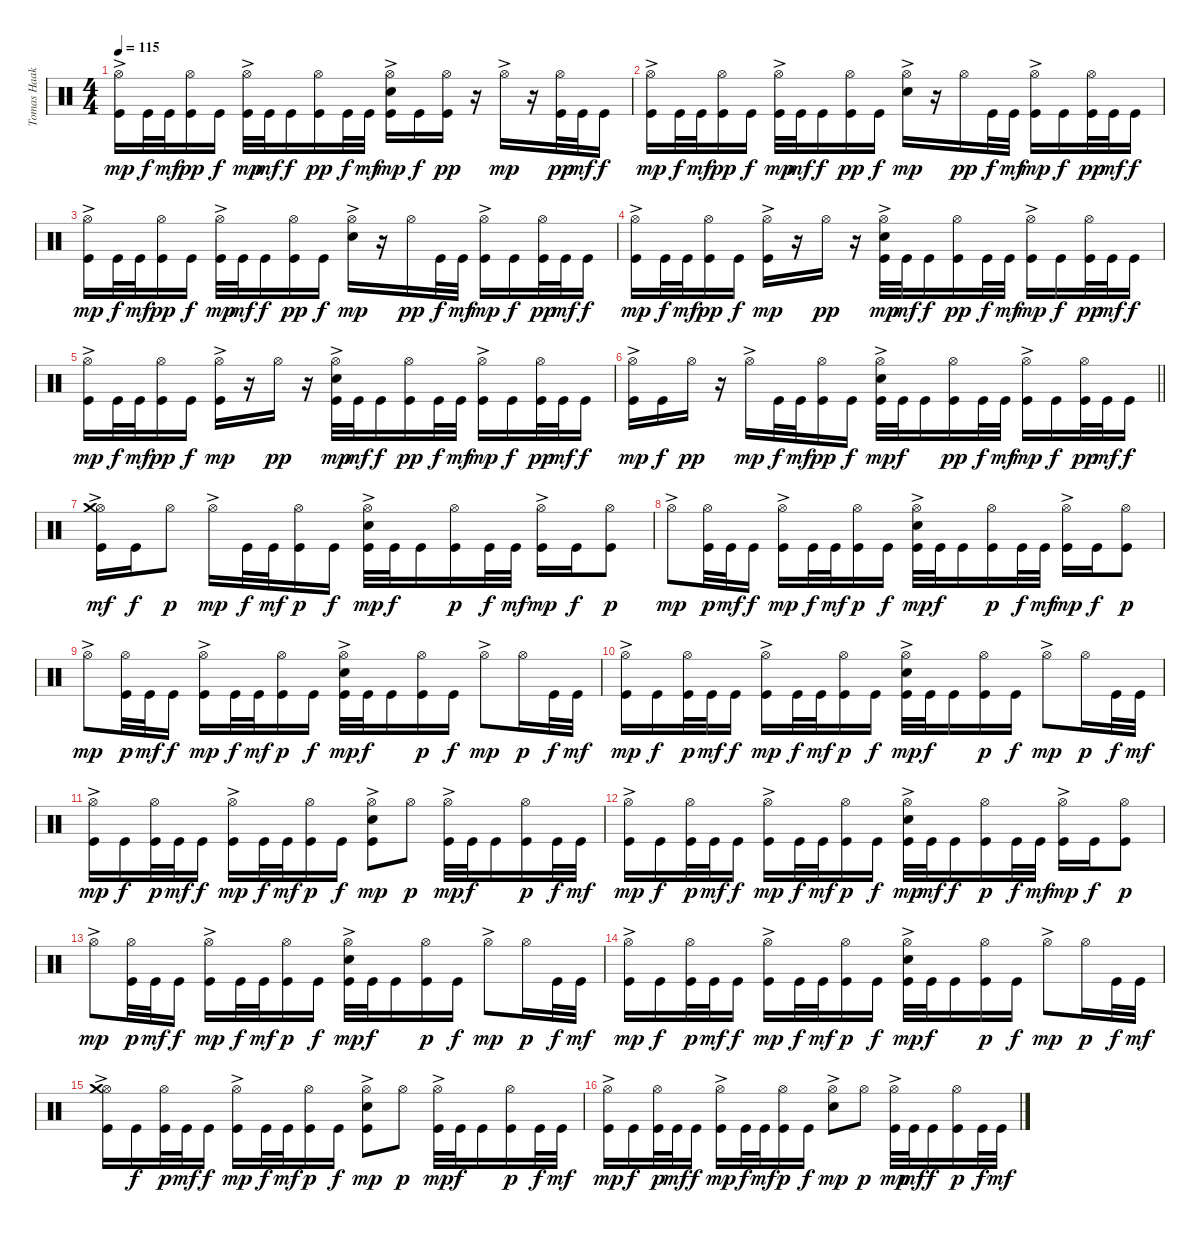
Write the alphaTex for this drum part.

\track ("Tomas Haake (Drums)" "Tomas Haak") {instrument percussion}
\staff {score}
\articulation defaults
\ts (4 4)
\tempo 115
\clef neutral
\ks c
("Hi-Hat (open)"{ac} "Kick (hit)").16{dy mp} "Kick (hit)".32{dy f} "Kick (hit)".32{dy mf} ("Hi-Hat (open)" "Kick (hit)").16{dy pp} "Kick (hit)".16{dy f} ("Hi-Hat (open)"{ac} "Kick (hit)").32{dy mp} "Kick (hit)".32{dy mf} "Kick (hit)".16{dy f} ("Hi-Hat (open)" "Kick (hit)").16{dy pp} "Kick (hit)".32{dy f} "Kick (hit)".32{dy mf} ("Hi-Hat (open)"{ac} "Electric Snare (hit)" "Kick (hit)").16{dy mp} "Kick (hit)".16{dy f} ("Hi-Hat (open)" "Kick (hit)").16{dy pp} r.16 "Hi-Hat (open)"{ac}.16{dy mp} r.16 ("Hi-Hat (open)" "Kick (hit)").32{dy pp} "Kick (hit)".32{dy mf} "Kick (hit)".16{dy f} |
("Hi-Hat (open)"{ac} "Kick (hit)").16{dy mp} "Kick (hit)".32{dy f} "Kick (hit)".32{dy mf} ("Hi-Hat (open)" "Kick (hit)").16{dy pp} "Kick (hit)".16{dy f} ("Hi-Hat (open)"{ac} "Kick (hit)").32{dy mp} "Kick (hit)".32{dy mf} "Kick (hit)".16{dy f} ("Hi-Hat (open)" "Kick (hit)").16{dy pp} "Kick (hit)".16{dy f} ("Hi-Hat (open)"{ac} "Electric Snare (hit)").16{dy mp} r.16 "Hi-Hat (open)".16{dy pp} "Kick (hit)".32{dy f} "Kick (hit)".32{dy mf} ("Hi-Hat (open)"{ac} "Kick (hit)").16{dy mp} "Kick (hit)".16{dy f} ("Hi-Hat (open)" "Kick (hit)").32{dy pp} "Kick (hit)".32{dy mf} "Kick (hit)".16{dy f} |
("Hi-Hat (open)"{ac} "Kick (hit)").16{dy mp} "Kick (hit)".32{dy f} "Kick (hit)".32{dy mf} ("Hi-Hat (open)" "Kick (hit)").16{dy pp} "Kick (hit)".16{dy f} ("Hi-Hat (open)"{ac} "Kick (hit)").32{dy mp} "Kick (hit)".32{dy mf} "Kick (hit)".16{dy f} ("Hi-Hat (open)" "Kick (hit)").16{dy pp} "Kick (hit)".16{dy f} ("Hi-Hat (open)"{ac} "Electric Snare (hit)").16{dy mp} r.16 "Hi-Hat (open)".16{dy pp} "Kick (hit)".32{dy f} "Kick (hit)".32{dy mf} ("Hi-Hat (open)"{ac} "Kick (hit)").16{dy mp} "Kick (hit)".16{dy f} ("Hi-Hat (open)" "Kick (hit)").32{dy pp} "Kick (hit)".32{dy mf} "Kick (hit)".16{dy f} |
("Hi-Hat (open)"{ac} "Kick (hit)").16{dy mp} "Kick (hit)".32{dy f} "Kick (hit)".32{dy mf} ("Hi-Hat (open)" "Kick (hit)").16{dy pp} "Kick (hit)".16{dy f} ("Hi-Hat (open)"{ac} "Kick (hit)").16{dy mp} r.16 "Hi-Hat (open)".16{dy pp} r.16 ("Hi-Hat (open)"{ac} "Electric Snare (hit)" "Kick (hit)").32{dy mp} "Kick (hit)".32{dy mf} "Kick (hit)".16{dy f} ("Hi-Hat (open)" "Kick (hit)").16{dy pp} "Kick (hit)".32{dy f} "Kick (hit)".32{dy mf} ("Hi-Hat (open)"{ac} "Kick (hit)").16{dy mp} "Kick (hit)".16{dy f} ("Hi-Hat (open)" "Kick (hit)").32{dy pp} "Kick (hit)".32{dy mf} "Kick (hit)".16{dy f} |
("Hi-Hat (open)"{ac} "Kick (hit)").16{dy mp} "Kick (hit)".32{dy f} "Kick (hit)".32{dy mf} ("Hi-Hat (open)" "Kick (hit)").16{dy pp} "Kick (hit)".16{dy f} ("Hi-Hat (open)"{ac} "Kick (hit)").16{dy mp} r.16 "Hi-Hat (open)".16{dy pp} r.16 ("Hi-Hat (open)"{ac} "Electric Snare (hit)" "Kick (hit)").32{dy mp} "Kick (hit)".32{dy mf} "Kick (hit)".16{dy f} ("Hi-Hat (open)" "Kick (hit)").16{dy pp} "Kick (hit)".32{dy f} "Kick (hit)".32{dy mf} ("Hi-Hat (open)"{ac} "Kick (hit)").16{dy mp} "Kick (hit)".16{dy f} ("Hi-Hat (open)" "Kick (hit)").32{dy pp} "Kick (hit)".32{dy mf} "Kick (hit)".16{dy f} |
\barLineRight lightlight
("Hi-Hat (open)"{ac} "Kick (hit)").16{dy mp} "Kick (hit)".16{dy f} "Hi-Hat (open)".16{dy pp} r.16 "Hi-Hat (open)"{ac}.16{dy mp} "Kick (hit)".32{dy f} "Kick (hit)".32{dy mf} ("Hi-Hat (open)" "Kick (hit)").16{dy pp} "Kick (hit)".16{dy f} ("Hi-Hat (open)"{ac} "Electric Snare (hit)" "Kick (hit)").32{dy mp} "Kick (hit)".32{dy f} "Kick (hit)".16 ("Hi-Hat (open)" "Kick (hit)").16{dy pp} "Kick (hit)".32{dy f} "Kick (hit)".32{dy mf} ("Hi-Hat (open)"{ac} "Kick (hit)").16{dy mp} "Kick (hit)".16{dy f} ("Hi-Hat (open)" "Kick (hit)").32{dy pp} "Kick (hit)".32{dy mf} "Kick (hit)".16{dy f} |
("Hi-Hat (open)"{ac} "Crash medium (hit)" "Kick (hit)").16{dy mf} "Kick (hit)".16{dy f} "Hi-Hat (open)".8{dy p} "Hi-Hat (open)"{ac}.16{dy mp} "Kick (hit)".32{dy f} "Kick (hit)".32{dy mf} ("Hi-Hat (open)" "Kick (hit)").16{dy p} "Kick (hit)".16{dy f} ("Hi-Hat (open)"{ac} "Electric Snare (hit)" "Kick (hit)").32{dy mp} "Kick (hit)".32{dy f} "Kick (hit)".16 ("Hi-Hat (open)" "Kick (hit)").16{dy p} "Kick (hit)".32{dy f} "Kick (hit)".32{dy mf} ("Hi-Hat (open)"{ac} "Kick (hit)").16{dy mp} "Kick (hit)".16{dy f} ("Hi-Hat (open)" "Kick (hit)").8{dy p} |
"Hi-Hat (open)"{ac}.8{dy mp} ("Hi-Hat (open)" "Kick (hit)").32{dy p} "Kick (hit)".32{dy mf} "Kick (hit)".16{dy f} ("Hi-Hat (open)"{ac} "Kick (hit)").16{dy mp} "Kick (hit)".32{dy f} "Kick (hit)".32{dy mf} ("Hi-Hat (open)" "Kick (hit)").16{dy p} "Kick (hit)".16{dy f} ("Hi-Hat (open)"{ac} "Electric Snare (hit)" "Kick (hit)").32{dy mp} "Kick (hit)".32{dy f} "Kick (hit)".16 ("Hi-Hat (open)" "Kick (hit)").16{dy p} "Kick (hit)".32{dy f} "Kick (hit)".32{dy mf} ("Hi-Hat (open)"{ac} "Kick (hit)").16{dy mp} "Kick (hit)".16{dy f} ("Hi-Hat (open)" "Kick (hit)").8{dy p} |
"Hi-Hat (open)"{ac}.8{dy mp} ("Hi-Hat (open)" "Kick (hit)").32{dy p} "Kick (hit)".32{dy mf} "Kick (hit)".16{dy f} ("Hi-Hat (open)"{ac} "Kick (hit)").16{dy mp} "Kick (hit)".32{dy f} "Kick (hit)".32{dy mf} ("Hi-Hat (open)" "Kick (hit)").16{dy p} "Kick (hit)".16{dy f} ("Hi-Hat (open)"{ac} "Electric Snare (hit)" "Kick (hit)").32{dy mp} "Kick (hit)".32{dy f} "Kick (hit)".16 ("Hi-Hat (open)" "Kick (hit)").16{dy p} "Kick (hit)".16{dy f} "Hi-Hat (open)"{ac}.8{dy mp} "Hi-Hat (open)".16{dy p} "Kick (hit)".32{dy f} "Kick (hit)".32{dy mf} |
("Hi-Hat (open)"{ac} "Kick (hit)").16{dy mp} "Kick (hit)".16{dy f} ("Hi-Hat (open)" "Kick (hit)").32{dy p} "Kick (hit)".32{dy mf} "Kick (hit)".16{dy f} ("Hi-Hat (open)"{ac} "Kick (hit)").16{dy mp} "Kick (hit)".32{dy f} "Kick (hit)".32{dy mf} ("Hi-Hat (open)" "Kick (hit)").16{dy p} "Kick (hit)".16{dy f} ("Hi-Hat (open)"{ac} "Electric Snare (hit)" "Kick (hit)").32{dy mp} "Kick (hit)".32{dy f} "Kick (hit)".16 ("Hi-Hat (open)" "Kick (hit)").16{dy p} "Kick (hit)".16{dy f} "Hi-Hat (open)"{ac}.8{dy mp} "Hi-Hat (open)".16{dy p} "Kick (hit)".32{dy f} "Kick (hit)".32{dy mf} |
("Hi-Hat (open)"{ac} "Kick (hit)").16{dy mp} "Kick (hit)".16{dy f} ("Hi-Hat (open)" "Kick (hit)").32{dy p} "Kick (hit)".32{dy mf} "Kick (hit)".16{dy f} ("Hi-Hat (open)"{ac} "Kick (hit)").16{dy mp} "Kick (hit)".32{dy f} "Kick (hit)".32{dy mf} ("Hi-Hat (open)" "Kick (hit)").16{dy p} "Kick (hit)".16{dy f} ("Hi-Hat (open)"{ac} "Electric Snare (hit)" "Kick (hit)").8{dy mp} "Hi-Hat (open)".8{dy p} ("Hi-Hat (open)"{ac} "Kick (hit)").32{dy mp} "Kick (hit)".32{dy f} "Kick (hit)".16 ("Hi-Hat (open)" "Kick (hit)").16{dy p} "Kick (hit)".32{dy f} "Kick (hit)".32{dy mf} |
("Hi-Hat (open)"{ac} "Kick (hit)").16{dy mp} "Kick (hit)".16{dy f} ("Hi-Hat (open)" "Kick (hit)").32{dy p} "Kick (hit)".32{dy mf} "Kick (hit)".16{dy f} ("Hi-Hat (open)"{ac} "Kick (hit)").16{dy mp} "Kick (hit)".32{dy f} "Kick (hit)".32{dy mf} ("Hi-Hat (open)" "Kick (hit)").16{dy p} "Kick (hit)".16{dy f} ("Hi-Hat (open)"{ac} "Electric Snare (hit)" "Kick (hit)").32{dy mp} "Kick (hit)".32{dy mf} "Kick (hit)".16{dy f} ("Hi-Hat (open)" "Kick (hit)").16{dy p} "Kick (hit)".32{dy f} "Kick (hit)".32{dy mf} ("Hi-Hat (open)"{ac} "Kick (hit)").16{dy mp} "Kick (hit)".16{dy f} ("Hi-Hat (open)" "Kick (hit)").8{dy p} |
"Hi-Hat (open)"{ac}.8{dy mp} ("Hi-Hat (open)" "Kick (hit)").32{dy p} "Kick (hit)".32{dy mf} "Kick (hit)".16{dy f} ("Hi-Hat (open)"{ac} "Kick (hit)").16{dy mp} "Kick (hit)".32{dy f} "Kick (hit)".32{dy mf} ("Hi-Hat (open)" "Kick (hit)").16{dy p} "Kick (hit)".16{dy f} ("Hi-Hat (open)"{ac} "Electric Snare (hit)" "Kick (hit)").32{dy mp} "Kick (hit)".32{dy f} "Kick (hit)".16 ("Hi-Hat (open)" "Kick (hit)").16{dy p} "Kick (hit)".16{dy f} "Hi-Hat (open)"{ac}.8{dy mp} "Hi-Hat (open)".16{dy p} "Kick (hit)".32{dy f} "Kick (hit)".32{dy mf} |
("Hi-Hat (open)"{ac} "Kick (hit)").16{dy mp} "Kick (hit)".16{dy f} ("Hi-Hat (open)" "Kick (hit)").32{dy p} "Kick (hit)".32{dy mf} "Kick (hit)".16{dy f} ("Hi-Hat (open)"{ac} "Kick (hit)").16{dy mp} "Kick (hit)".32{dy f} "Kick (hit)".32{dy mf} ("Hi-Hat (open)" "Kick (hit)").16{dy p} "Kick (hit)".16{dy f} ("Hi-Hat (open)"{ac} "Electric Snare (hit)" "Kick (hit)").32{dy mp} "Kick (hit)".32{dy f} "Kick (hit)".16 ("Hi-Hat (open)" "Kick (hit)").16{dy p} "Kick (hit)".16{dy f} "Hi-Hat (open)"{ac}.8{dy mp} "Hi-Hat (open)".16{dy p} "Kick (hit)".32{dy f} "Kick (hit)".32{dy mf} |
("Hi-Hat (open)"{ac} "Crash medium (hit)" "Kick (hit)").16 "Kick (hit)".16{dy f} ("Hi-Hat (open)" "Kick (hit)").32{dy p} "Kick (hit)".32{dy mf} "Kick (hit)".16{dy f} ("Hi-Hat (open)"{ac} "Kick (hit)").16{dy mp} "Kick (hit)".32{dy f} "Kick (hit)".32{dy mf} ("Hi-Hat (open)" "Kick (hit)").16{dy p} "Kick (hit)".16{dy f} ("Hi-Hat (open)"{ac} "Electric Snare (hit)" "Kick (hit)").8{dy mp} "Hi-Hat (open)".8{dy p} ("Hi-Hat (open)"{ac} "Kick (hit)").32{dy mp} "Kick (hit)".32{dy f} "Kick (hit)".16 ("Hi-Hat (open)" "Kick (hit)").16{dy p} "Kick (hit)".32{dy f} "Kick (hit)".32{dy mf} |
("Hi-Hat (open)"{ac} "Kick (hit)").16{dy mp} "Kick (hit)".16{dy f} ("Hi-Hat (open)" "Kick (hit)").32{dy p} "Kick (hit)".32{dy mf} "Kick (hit)".16{dy f} ("Hi-Hat (open)"{ac} "Kick (hit)").16{dy mp} "Kick (hit)".32{dy f} "Kick (hit)".32{dy mf} ("Hi-Hat (open)" "Kick (hit)").16{dy p} "Kick (hit)".16{dy f} ("Hi-Hat (open)"{ac} "Electric Snare (hit)").8{dy mp} "Hi-Hat (open)".8{dy p} ("Hi-Hat (open)"{ac} "Kick (hit)").32{dy mp} "Kick (hit)".32{dy mf} "Kick (hit)".16{dy f} ("Hi-Hat (open)" "Kick (hit)").16{dy p} "Kick (hit)".32{dy f} "Kick (hit)".32{dy mf}
